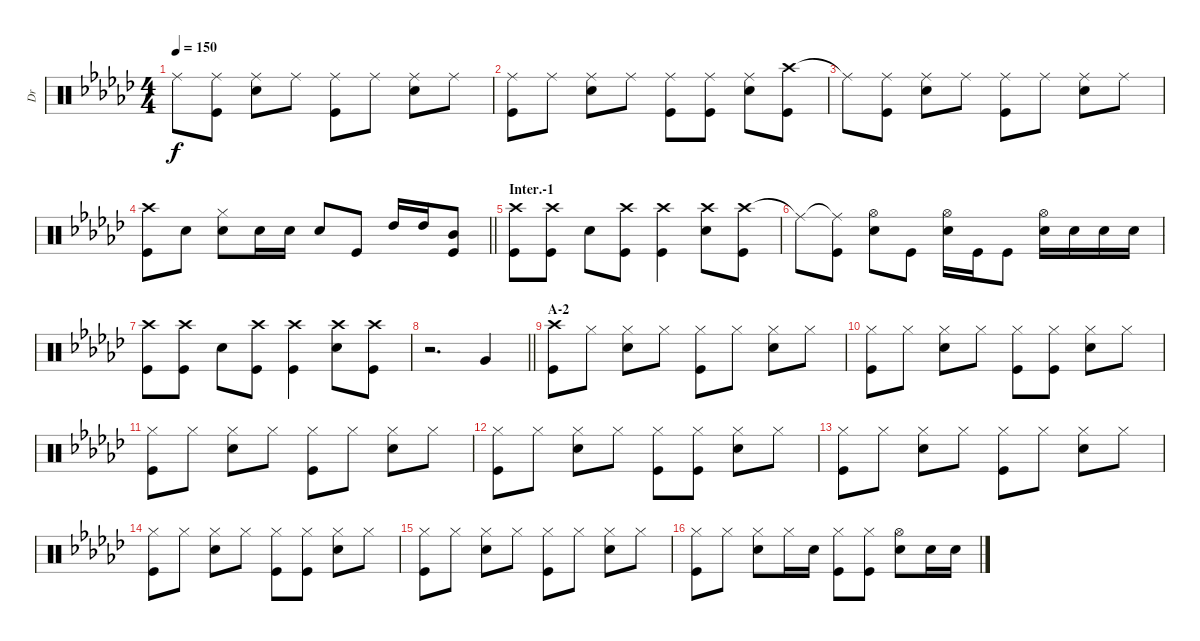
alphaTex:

\track ("Dr" "Dr") {instrument percussion}
\staff {score}
\articulation defaults
\ts (4 4)
\tempo 150
\clef neutral
\ks gb "Ride (middle)"{t}.8{dy f}
("Ride (middle)" "Kick (hit)").8 ("Ride (middle)" "Electric Snare (hit)").8 "Ride (middle)".8 ("Ride (middle)" "Kick (hit)").8 "Ride (middle)".8 ("Ride (middle)" "Electric Snare (hit)").8 "Ride (middle)".8 |
("Ride (middle)" "Kick (hit)").8 "Ride (middle)".8 ("Ride (middle)" "Electric Snare (hit)").8 "Ride (middle)".8 ("Ride (middle)" "Kick (hit)").8 ("Ride (middle)" "Kick (hit)").8 ("Ride (middle)" "Electric Snare (hit)").8 ("Crash high (hit)" "Kick (hit)").8 |
"Ride (middle)"{t}.8 ("Ride (middle)" "Kick (hit)").8 ("Ride (middle)" "Electric Snare (hit)").8 "Ride (middle)".8 ("Ride (middle)" "Kick (hit)").8 "Ride (middle)".8 ("Ride (middle)" "Electric Snare (hit)").8 "Ride (middle)".8 |
\barLineRight lightlight
("Crash high (hit)" "Kick (hit)").8 "Electric Snare (hit)".8 ("Hi-Hat (closed)" "Electric Snare (hit)").8 "Electric Snare (hit)".16 "Electric Snare (hit)".16 "Electric Snare (hit)".8 "Kick (hit)".8 "High Tom (hit)".16 "High Tom (hit)".16 ("Mid Tom (hit)" "Kick (hit)").8 |
\section ("" "Inter.-1")
("Crash high (hit)" "Kick (hit)").8 ("Crash high (hit)" "Kick (hit)").8 "Electric Snare (hit)".8 ("Crash high (hit)" "Kick (hit)").8 ("Crash high (hit)" "Kick (hit)").4 ("Crash high (hit)" "Electric Snare (hit)").8 ("Crash high (hit)" "Kick (hit)").8 |
"Ride (middle)"{t}.8 ("Ride (middle)"{t} "Kick (hit)").8 ("Hi-Hat (open)" "Electric Snare (hit)").8 "Kick (hit)".8 ("Hi-Hat (open)" "Electric Snare (hit)").16 "Kick (hit)".16 "Kick (hit)".8 ("Hi-Hat (open)" "Electric Snare (hit)").16 "Electric Snare (hit)".16 "Electric Snare (hit)".16 "Electric Snare (hit)".16 |
("Crash high (hit)" "Kick (hit)").8 ("Crash high (hit)" "Kick (hit)").8 "Electric Snare (hit)".8 ("Crash high (hit)" "Kick (hit)").8 ("Crash high (hit)" "Kick (hit)").4 ("Crash high (hit)" "Electric Snare (hit)").8 ("Crash high (hit)" "Kick (hit)").8 |
\barLineRight lightlight
r.2{d} "Very Low Tom (hit)".4 |
\section ("" "A-2")
("Crash high (hit)" "Kick (hit)").8 "Hi-Hat (closed)".8 ("Hi-Hat (closed)" "Electric Snare (hit)").8 "Hi-Hat (closed)".8 ("Hi-Hat (closed)" "Kick (hit)").8 "Hi-Hat (closed)".8 ("Hi-Hat (closed)" "Electric Snare (hit)").8 "Hi-Hat (closed)".8 |
("Hi-Hat (closed)" "Kick (hit)").8 "Hi-Hat (closed)".8 ("Hi-Hat (closed)" "Electric Snare (hit)").8 "Hi-Hat (closed)".8 ("Hi-Hat (closed)" "Kick (hit)").8 ("Hi-Hat (closed)" "Kick (hit)").8 ("Hi-Hat (closed)" "Electric Snare (hit)").8 "Hi-Hat (closed)".8 |
("Hi-Hat (closed)" "Kick (hit)").8 "Hi-Hat (closed)".8 ("Hi-Hat (closed)" "Electric Snare (hit)").8 "Hi-Hat (closed)".8 ("Hi-Hat (closed)" "Kick (hit)").8 "Hi-Hat (closed)".8 ("Hi-Hat (closed)" "Electric Snare (hit)").8 "Hi-Hat (closed)".8 |
("Hi-Hat (closed)" "Kick (hit)").8 "Hi-Hat (closed)".8 ("Hi-Hat (closed)" "Electric Snare (hit)").8 "Hi-Hat (closed)".8 ("Hi-Hat (closed)" "Kick (hit)").8 ("Hi-Hat (closed)" "Kick (hit)").8 ("Hi-Hat (closed)" "Electric Snare (hit)").8 "Hi-Hat (closed)".8 |
("Hi-Hat (closed)" "Kick (hit)").8 "Hi-Hat (closed)".8 ("Hi-Hat (closed)" "Electric Snare (hit)").8 "Hi-Hat (closed)".8 ("Hi-Hat (closed)" "Kick (hit)").8 "Hi-Hat (closed)".8 ("Hi-Hat (closed)" "Electric Snare (hit)").8 "Hi-Hat (closed)".8 |
("Hi-Hat (closed)" "Kick (hit)").8 "Hi-Hat (closed)".8 ("Hi-Hat (closed)" "Electric Snare (hit)").8 "Hi-Hat (closed)".8 ("Hi-Hat (closed)" "Kick (hit)").8 ("Hi-Hat (closed)" "Kick (hit)").8 ("Hi-Hat (closed)" "Electric Snare (hit)").8 "Hi-Hat (closed)".8 |
("Hi-Hat (closed)" "Kick (hit)").8 "Hi-Hat (closed)".8 ("Hi-Hat (closed)" "Electric Snare (hit)").8 "Hi-Hat (closed)".8 ("Hi-Hat (closed)" "Kick (hit)").8 "Hi-Hat (closed)".8 ("Hi-Hat (closed)" "Electric Snare (hit)").8 "Hi-Hat (closed)".8 |
("Hi-Hat (closed)" "Kick (hit)").8 "Hi-Hat (closed)".8 ("Hi-Hat (closed)" "Electric Snare (hit)").8 "Hi-Hat (closed)".16 "Electric Snare (hit)".16 ("Hi-Hat (closed)" "Kick (hit)").8 ("Hi-Hat (closed)" "Kick (hit)").8 ("Hi-Hat (open)" "Electric Snare (hit)").8 "Electric Snare (hit)".16 "Electric Snare (hit)".16
